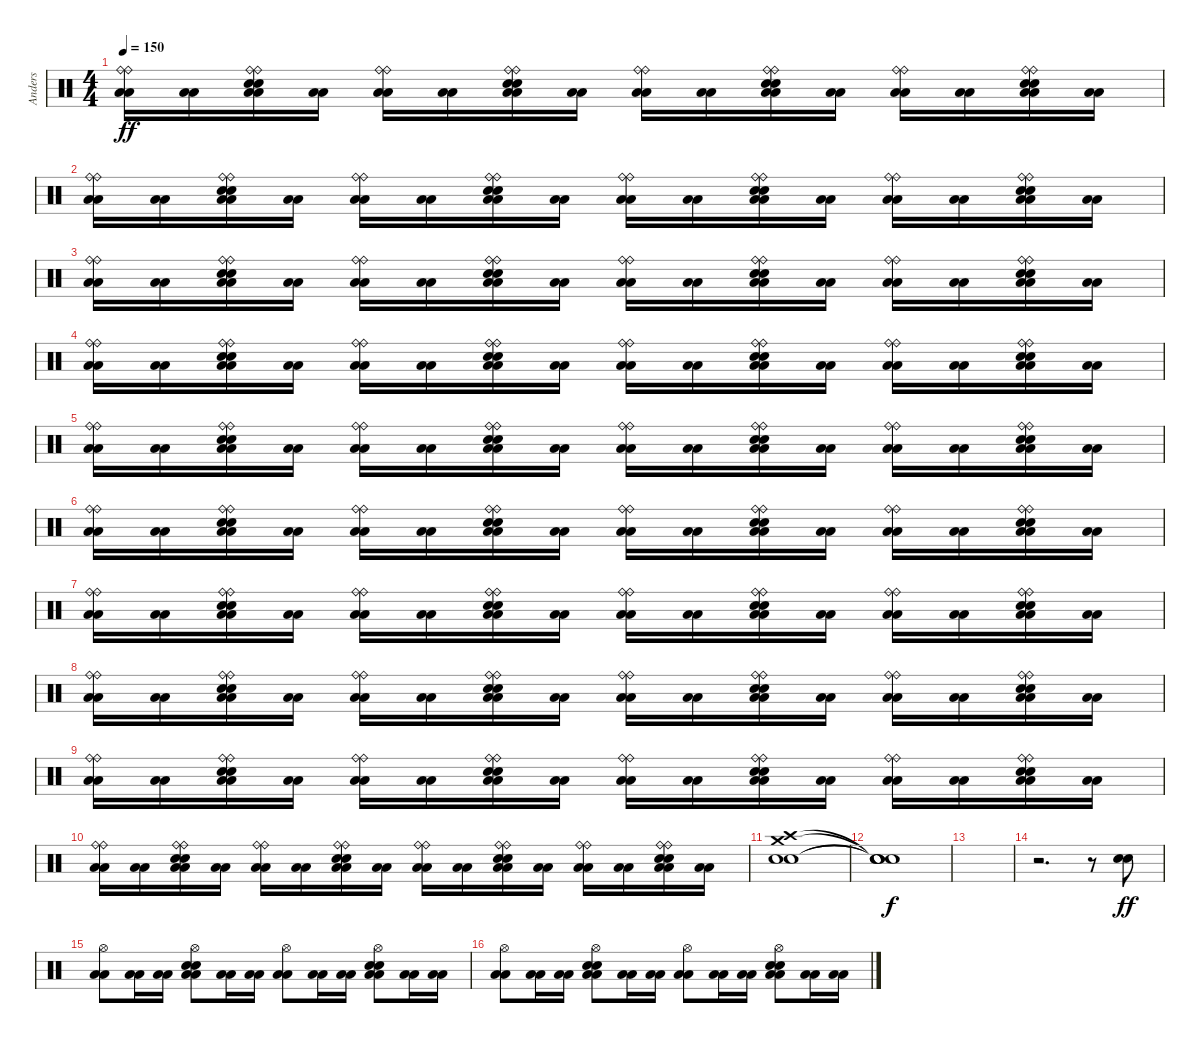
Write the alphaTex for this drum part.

\track ("Anders" "Anders") {instrument percussion}
\staff {score}
\articulation defaults
\ts (4 4)
\tempo 150
\clef neutral
\ks c
("Ride (bell)" "Ride (bell)" "Low Floor Tom (hit)" "Low Floor Tom (hit)").16{dy ff} ("Low Floor Tom (hit)" "Low Floor Tom (hit)").16 ("Ride (bell)" "Ride (bell)" "Electric Snare (hit)" "Electric Snare (hit)" "Low Floor Tom (hit)" "Low Floor Tom (hit)").16 ("Low Floor Tom (hit)" "Low Floor Tom (hit)").16 ("Ride (bell)" "Ride (bell)" "Low Floor Tom (hit)" "Low Floor Tom (hit)").16 ("Low Floor Tom (hit)" "Low Floor Tom (hit)").16 ("Ride (bell)" "Ride (bell)" "Electric Snare (hit)" "Electric Snare (hit)" "Low Floor Tom (hit)" "Low Floor Tom (hit)").16 ("Low Floor Tom (hit)" "Low Floor Tom (hit)").16 ("Ride (bell)" "Ride (bell)" "Low Floor Tom (hit)" "Low Floor Tom (hit)").16 ("Low Floor Tom (hit)" "Low Floor Tom (hit)").16 ("Ride (bell)" "Ride (bell)" "Electric Snare (hit)" "Electric Snare (hit)" "Low Floor Tom (hit)" "Low Floor Tom (hit)").16 ("Low Floor Tom (hit)" "Low Floor Tom (hit)").16 ("Ride (bell)" "Ride (bell)" "Low Floor Tom (hit)" "Low Floor Tom (hit)").16 ("Low Floor Tom (hit)" "Low Floor Tom (hit)").16 ("Ride (bell)" "Ride (bell)" "Electric Snare (hit)" "Electric Snare (hit)" "Low Floor Tom (hit)" "Low Floor Tom (hit)").16 ("Low Floor Tom (hit)" "Low Floor Tom (hit)").16 |
("Ride (bell)" "Ride (bell)" "Low Floor Tom (hit)" "Low Floor Tom (hit)").16 ("Low Floor Tom (hit)" "Low Floor Tom (hit)").16 ("Ride (bell)" "Ride (bell)" "Electric Snare (hit)" "Electric Snare (hit)" "Low Floor Tom (hit)" "Low Floor Tom (hit)").16 ("Low Floor Tom (hit)" "Low Floor Tom (hit)").16 ("Ride (bell)" "Ride (bell)" "Low Floor Tom (hit)" "Low Floor Tom (hit)").16 ("Low Floor Tom (hit)" "Low Floor Tom (hit)").16 ("Ride (bell)" "Ride (bell)" "Electric Snare (hit)" "Electric Snare (hit)" "Low Floor Tom (hit)" "Low Floor Tom (hit)").16 ("Low Floor Tom (hit)" "Low Floor Tom (hit)").16 ("Ride (bell)" "Ride (bell)" "Low Floor Tom (hit)" "Low Floor Tom (hit)").16 ("Low Floor Tom (hit)" "Low Floor Tom (hit)").16 ("Ride (bell)" "Ride (bell)" "Electric Snare (hit)" "Electric Snare (hit)" "Low Floor Tom (hit)" "Low Floor Tom (hit)").16 ("Low Floor Tom (hit)" "Low Floor Tom (hit)").16 ("Ride (bell)" "Ride (bell)" "Low Floor Tom (hit)" "Low Floor Tom (hit)").16 ("Low Floor Tom (hit)" "Low Floor Tom (hit)").16 ("Ride (bell)" "Ride (bell)" "Electric Snare (hit)" "Electric Snare (hit)" "Low Floor Tom (hit)" "Low Floor Tom (hit)").16 ("Low Floor Tom (hit)" "Low Floor Tom (hit)").16 |
("Ride (bell)" "Ride (bell)" "Low Floor Tom (hit)" "Low Floor Tom (hit)").16 ("Low Floor Tom (hit)" "Low Floor Tom (hit)").16 ("Ride (bell)" "Ride (bell)" "Electric Snare (hit)" "Electric Snare (hit)" "Low Floor Tom (hit)" "Low Floor Tom (hit)").16 ("Low Floor Tom (hit)" "Low Floor Tom (hit)").16 ("Ride (bell)" "Ride (bell)" "Low Floor Tom (hit)" "Low Floor Tom (hit)").16 ("Low Floor Tom (hit)" "Low Floor Tom (hit)").16 ("Ride (bell)" "Ride (bell)" "Electric Snare (hit)" "Electric Snare (hit)" "Low Floor Tom (hit)" "Low Floor Tom (hit)").16 ("Low Floor Tom (hit)" "Low Floor Tom (hit)").16 ("Ride (bell)" "Ride (bell)" "Low Floor Tom (hit)" "Low Floor Tom (hit)").16 ("Low Floor Tom (hit)" "Low Floor Tom (hit)").16 ("Ride (bell)" "Ride (bell)" "Electric Snare (hit)" "Electric Snare (hit)" "Low Floor Tom (hit)" "Low Floor Tom (hit)").16 ("Low Floor Tom (hit)" "Low Floor Tom (hit)").16 ("Ride (bell)" "Ride (bell)" "Low Floor Tom (hit)" "Low Floor Tom (hit)").16 ("Low Floor Tom (hit)" "Low Floor Tom (hit)").16 ("Ride (bell)" "Ride (bell)" "Electric Snare (hit)" "Electric Snare (hit)" "Low Floor Tom (hit)" "Low Floor Tom (hit)").16 ("Low Floor Tom (hit)" "Low Floor Tom (hit)").16 |
("Ride (bell)" "Ride (bell)" "Low Floor Tom (hit)" "Low Floor Tom (hit)").16 ("Low Floor Tom (hit)" "Low Floor Tom (hit)").16 ("Ride (bell)" "Ride (bell)" "Electric Snare (hit)" "Electric Snare (hit)" "Low Floor Tom (hit)" "Low Floor Tom (hit)").16 ("Low Floor Tom (hit)" "Low Floor Tom (hit)").16 ("Ride (bell)" "Ride (bell)" "Low Floor Tom (hit)" "Low Floor Tom (hit)").16 ("Low Floor Tom (hit)" "Low Floor Tom (hit)").16 ("Ride (bell)" "Ride (bell)" "Electric Snare (hit)" "Electric Snare (hit)" "Low Floor Tom (hit)" "Low Floor Tom (hit)").16 ("Low Floor Tom (hit)" "Low Floor Tom (hit)").16 ("Ride (bell)" "Ride (bell)" "Low Floor Tom (hit)" "Low Floor Tom (hit)").16 ("Low Floor Tom (hit)" "Low Floor Tom (hit)").16 ("Ride (bell)" "Ride (bell)" "Electric Snare (hit)" "Electric Snare (hit)" "Low Floor Tom (hit)" "Low Floor Tom (hit)").16 ("Low Floor Tom (hit)" "Low Floor Tom (hit)").16 ("Ride (bell)" "Ride (bell)" "Low Floor Tom (hit)" "Low Floor Tom (hit)").16 ("Low Floor Tom (hit)" "Low Floor Tom (hit)").16 ("Ride (bell)" "Ride (bell)" "Electric Snare (hit)" "Electric Snare (hit)" "Low Floor Tom (hit)" "Low Floor Tom (hit)").16 ("Low Floor Tom (hit)" "Low Floor Tom (hit)").16 |
("Ride (bell)" "Ride (bell)" "Low Floor Tom (hit)" "Low Floor Tom (hit)").16 ("Low Floor Tom (hit)" "Low Floor Tom (hit)").16 ("Ride (bell)" "Ride (bell)" "Electric Snare (hit)" "Electric Snare (hit)" "Low Floor Tom (hit)" "Low Floor Tom (hit)").16 ("Low Floor Tom (hit)" "Low Floor Tom (hit)").16 ("Ride (bell)" "Ride (bell)" "Low Floor Tom (hit)" "Low Floor Tom (hit)").16 ("Low Floor Tom (hit)" "Low Floor Tom (hit)").16 ("Ride (bell)" "Ride (bell)" "Electric Snare (hit)" "Electric Snare (hit)" "Low Floor Tom (hit)" "Low Floor Tom (hit)").16 ("Low Floor Tom (hit)" "Low Floor Tom (hit)").16 ("Ride (bell)" "Ride (bell)" "Low Floor Tom (hit)" "Low Floor Tom (hit)").16 ("Low Floor Tom (hit)" "Low Floor Tom (hit)").16 ("Ride (bell)" "Ride (bell)" "Electric Snare (hit)" "Electric Snare (hit)" "Low Floor Tom (hit)" "Low Floor Tom (hit)").16 ("Low Floor Tom (hit)" "Low Floor Tom (hit)").16 ("Ride (bell)" "Ride (bell)" "Low Floor Tom (hit)" "Low Floor Tom (hit)").16 ("Low Floor Tom (hit)" "Low Floor Tom (hit)").16 ("Ride (bell)" "Ride (bell)" "Electric Snare (hit)" "Electric Snare (hit)" "Low Floor Tom (hit)" "Low Floor Tom (hit)").16 ("Low Floor Tom (hit)" "Low Floor Tom (hit)").16 |
("Ride (bell)" "Ride (bell)" "Low Floor Tom (hit)" "Low Floor Tom (hit)").16 ("Low Floor Tom (hit)" "Low Floor Tom (hit)").16 ("Ride (bell)" "Ride (bell)" "Electric Snare (hit)" "Electric Snare (hit)" "Low Floor Tom (hit)" "Low Floor Tom (hit)").16 ("Low Floor Tom (hit)" "Low Floor Tom (hit)").16 ("Ride (bell)" "Ride (bell)" "Low Floor Tom (hit)" "Low Floor Tom (hit)").16 ("Low Floor Tom (hit)" "Low Floor Tom (hit)").16 ("Ride (bell)" "Ride (bell)" "Electric Snare (hit)" "Electric Snare (hit)" "Low Floor Tom (hit)" "Low Floor Tom (hit)").16 ("Low Floor Tom (hit)" "Low Floor Tom (hit)").16 ("Ride (bell)" "Ride (bell)" "Low Floor Tom (hit)" "Low Floor Tom (hit)").16 ("Low Floor Tom (hit)" "Low Floor Tom (hit)").16 ("Ride (bell)" "Ride (bell)" "Electric Snare (hit)" "Electric Snare (hit)" "Low Floor Tom (hit)" "Low Floor Tom (hit)").16 ("Low Floor Tom (hit)" "Low Floor Tom (hit)").16 ("Ride (bell)" "Ride (bell)" "Low Floor Tom (hit)" "Low Floor Tom (hit)").16 ("Low Floor Tom (hit)" "Low Floor Tom (hit)").16 ("Ride (bell)" "Ride (bell)" "Electric Snare (hit)" "Electric Snare (hit)" "Low Floor Tom (hit)" "Low Floor Tom (hit)").16 ("Low Floor Tom (hit)" "Low Floor Tom (hit)").16 |
("Ride (bell)" "Ride (bell)" "Low Floor Tom (hit)" "Low Floor Tom (hit)").16 ("Low Floor Tom (hit)" "Low Floor Tom (hit)").16 ("Ride (bell)" "Ride (bell)" "Electric Snare (hit)" "Electric Snare (hit)" "Low Floor Tom (hit)" "Low Floor Tom (hit)").16 ("Low Floor Tom (hit)" "Low Floor Tom (hit)").16 ("Ride (bell)" "Ride (bell)" "Low Floor Tom (hit)" "Low Floor Tom (hit)").16 ("Low Floor Tom (hit)" "Low Floor Tom (hit)").16 ("Ride (bell)" "Ride (bell)" "Electric Snare (hit)" "Electric Snare (hit)" "Low Floor Tom (hit)" "Low Floor Tom (hit)").16 ("Low Floor Tom (hit)" "Low Floor Tom (hit)").16 ("Ride (bell)" "Ride (bell)" "Low Floor Tom (hit)" "Low Floor Tom (hit)").16 ("Low Floor Tom (hit)" "Low Floor Tom (hit)").16 ("Ride (bell)" "Ride (bell)" "Electric Snare (hit)" "Electric Snare (hit)" "Low Floor Tom (hit)" "Low Floor Tom (hit)").16 ("Low Floor Tom (hit)" "Low Floor Tom (hit)").16 ("Ride (bell)" "Ride (bell)" "Low Floor Tom (hit)" "Low Floor Tom (hit)").16 ("Low Floor Tom (hit)" "Low Floor Tom (hit)").16 ("Ride (bell)" "Ride (bell)" "Electric Snare (hit)" "Electric Snare (hit)" "Low Floor Tom (hit)" "Low Floor Tom (hit)").16 ("Low Floor Tom (hit)" "Low Floor Tom (hit)").16 |
("Ride (bell)" "Ride (bell)" "Low Floor Tom (hit)" "Low Floor Tom (hit)").16 ("Low Floor Tom (hit)" "Low Floor Tom (hit)").16 ("Ride (bell)" "Ride (bell)" "Electric Snare (hit)" "Electric Snare (hit)" "Low Floor Tom (hit)" "Low Floor Tom (hit)").16 ("Low Floor Tom (hit)" "Low Floor Tom (hit)").16 ("Ride (bell)" "Ride (bell)" "Low Floor Tom (hit)" "Low Floor Tom (hit)").16 ("Low Floor Tom (hit)" "Low Floor Tom (hit)").16 ("Ride (bell)" "Ride (bell)" "Electric Snare (hit)" "Electric Snare (hit)" "Low Floor Tom (hit)" "Low Floor Tom (hit)").16 ("Low Floor Tom (hit)" "Low Floor Tom (hit)").16 ("Ride (bell)" "Ride (bell)" "Low Floor Tom (hit)" "Low Floor Tom (hit)").16 ("Low Floor Tom (hit)" "Low Floor Tom (hit)").16 ("Ride (bell)" "Ride (bell)" "Electric Snare (hit)" "Electric Snare (hit)" "Low Floor Tom (hit)" "Low Floor Tom (hit)").16 ("Low Floor Tom (hit)" "Low Floor Tom (hit)").16 ("Ride (bell)" "Ride (bell)" "Low Floor Tom (hit)" "Low Floor Tom (hit)").16 ("Low Floor Tom (hit)" "Low Floor Tom (hit)").16 ("Ride (bell)" "Ride (bell)" "Electric Snare (hit)" "Electric Snare (hit)" "Low Floor Tom (hit)" "Low Floor Tom (hit)").16 ("Low Floor Tom (hit)" "Low Floor Tom (hit)").16 |
("Ride (bell)" "Ride (bell)" "Low Floor Tom (hit)" "Low Floor Tom (hit)").16 ("Low Floor Tom (hit)" "Low Floor Tom (hit)").16 ("Ride (bell)" "Ride (bell)" "Electric Snare (hit)" "Electric Snare (hit)" "Low Floor Tom (hit)" "Low Floor Tom (hit)").16 ("Low Floor Tom (hit)" "Low Floor Tom (hit)").16 ("Ride (bell)" "Ride (bell)" "Low Floor Tom (hit)" "Low Floor Tom (hit)").16 ("Low Floor Tom (hit)" "Low Floor Tom (hit)").16 ("Ride (bell)" "Ride (bell)" "Electric Snare (hit)" "Electric Snare (hit)" "Low Floor Tom (hit)" "Low Floor Tom (hit)").16 ("Low Floor Tom (hit)" "Low Floor Tom (hit)").16 ("Ride (bell)" "Ride (bell)" "Low Floor Tom (hit)" "Low Floor Tom (hit)").16 ("Low Floor Tom (hit)" "Low Floor Tom (hit)").16 ("Ride (bell)" "Ride (bell)" "Electric Snare (hit)" "Electric Snare (hit)" "Low Floor Tom (hit)" "Low Floor Tom (hit)").16 ("Low Floor Tom (hit)" "Low Floor Tom (hit)").16 ("Ride (bell)" "Ride (bell)" "Low Floor Tom (hit)" "Low Floor Tom (hit)").16 ("Low Floor Tom (hit)" "Low Floor Tom (hit)").16 ("Ride (bell)" "Ride (bell)" "Electric Snare (hit)" "Electric Snare (hit)" "Low Floor Tom (hit)" "Low Floor Tom (hit)").16 ("Low Floor Tom (hit)" "Low Floor Tom (hit)").16 |
("Ride (bell)" "Ride (bell)" "Low Floor Tom (hit)" "Low Floor Tom (hit)").16 ("Low Floor Tom (hit)" "Low Floor Tom (hit)").16 ("Ride (bell)" "Ride (bell)" "Electric Snare (hit)" "Electric Snare (hit)" "Low Floor Tom (hit)" "Low Floor Tom (hit)").16 ("Low Floor Tom (hit)" "Low Floor Tom (hit)").16 ("Ride (bell)" "Ride (bell)" "Low Floor Tom (hit)" "Low Floor Tom (hit)").16 ("Low Floor Tom (hit)" "Low Floor Tom (hit)").16 ("Ride (bell)" "Ride (bell)" "Electric Snare (hit)" "Electric Snare (hit)" "Low Floor Tom (hit)" "Low Floor Tom (hit)").16 ("Low Floor Tom (hit)" "Low Floor Tom (hit)").16 ("Ride (bell)" "Ride (bell)" "Low Floor Tom (hit)" "Low Floor Tom (hit)").16 ("Low Floor Tom (hit)" "Low Floor Tom (hit)").16 ("Ride (bell)" "Ride (bell)" "Electric Snare (hit)" "Electric Snare (hit)" "Low Floor Tom (hit)" "Low Floor Tom (hit)").16 ("Low Floor Tom (hit)" "Low Floor Tom (hit)").16 ("Ride (bell)" "Ride (bell)" "Low Floor Tom (hit)" "Low Floor Tom (hit)").16 ("Low Floor Tom (hit)" "Low Floor Tom (hit)").16 ("Ride (bell)" "Ride (bell)" "Electric Snare (hit)" "Electric Snare (hit)" "Low Floor Tom (hit)" "Low Floor Tom (hit)").16 ("Low Floor Tom (hit)" "Low Floor Tom (hit)").16 |
("Crash high (hit)" "Crash medium (hit)" "Electric Snare (hit)" "Electric Snare (hit)").1 |
("Snare (hit)"{t} "Snare (hit)"{t} "Snare (hit)"{t} "Snare (hit)"{t}).1{dy f} |
|
r.2{d} r.8 ("Electric Snare (hit)" "Electric Snare (hit)").8{dy ff} |
("Hi-Hat (open)" "Low Floor Tom (hit)" "Low Floor Tom (hit)").8 ("Low Floor Tom (hit)" "Low Floor Tom (hit)").16 ("Low Floor Tom (hit)" "Low Floor Tom (hit)").16 ("Hi-Hat (open)" "Electric Snare (hit)" "Electric Snare (hit)" "Low Floor Tom (hit)" "Low Floor Tom (hit)").8 ("Low Floor Tom (hit)" "Low Floor Tom (hit)").16 ("Low Floor Tom (hit)" "Low Floor Tom (hit)").16 ("Hi-Hat (open)" "Low Floor Tom (hit)" "Low Floor Tom (hit)").8 ("Low Floor Tom (hit)" "Low Floor Tom (hit)").16 ("Low Floor Tom (hit)" "Low Floor Tom (hit)").16 ("Hi-Hat (open)" "Electric Snare (hit)" "Electric Snare (hit)" "Low Floor Tom (hit)" "Low Floor Tom (hit)").8 ("Low Floor Tom (hit)" "Low Floor Tom (hit)").16 ("Low Floor Tom (hit)" "Low Floor Tom (hit)").16 |
("Hi-Hat (open)" "Low Floor Tom (hit)" "Low Floor Tom (hit)").8 ("Low Floor Tom (hit)" "Low Floor Tom (hit)").16 ("Low Floor Tom (hit)" "Low Floor Tom (hit)").16 ("Hi-Hat (open)" "Electric Snare (hit)" "Electric Snare (hit)" "Low Floor Tom (hit)" "Low Floor Tom (hit)").8 ("Low Floor Tom (hit)" "Low Floor Tom (hit)").16 ("Low Floor Tom (hit)" "Low Floor Tom (hit)").16 ("Hi-Hat (open)" "Low Floor Tom (hit)" "Low Floor Tom (hit)").8 ("Low Floor Tom (hit)" "Low Floor Tom (hit)").16 ("Low Floor Tom (hit)" "Low Floor Tom (hit)").16 ("Hi-Hat (open)" "Electric Snare (hit)" "Electric Snare (hit)" "Low Floor Tom (hit)" "Low Floor Tom (hit)").8 ("Low Floor Tom (hit)" "Low Floor Tom (hit)").16 ("Low Floor Tom (hit)" "Low Floor Tom (hit)").16
